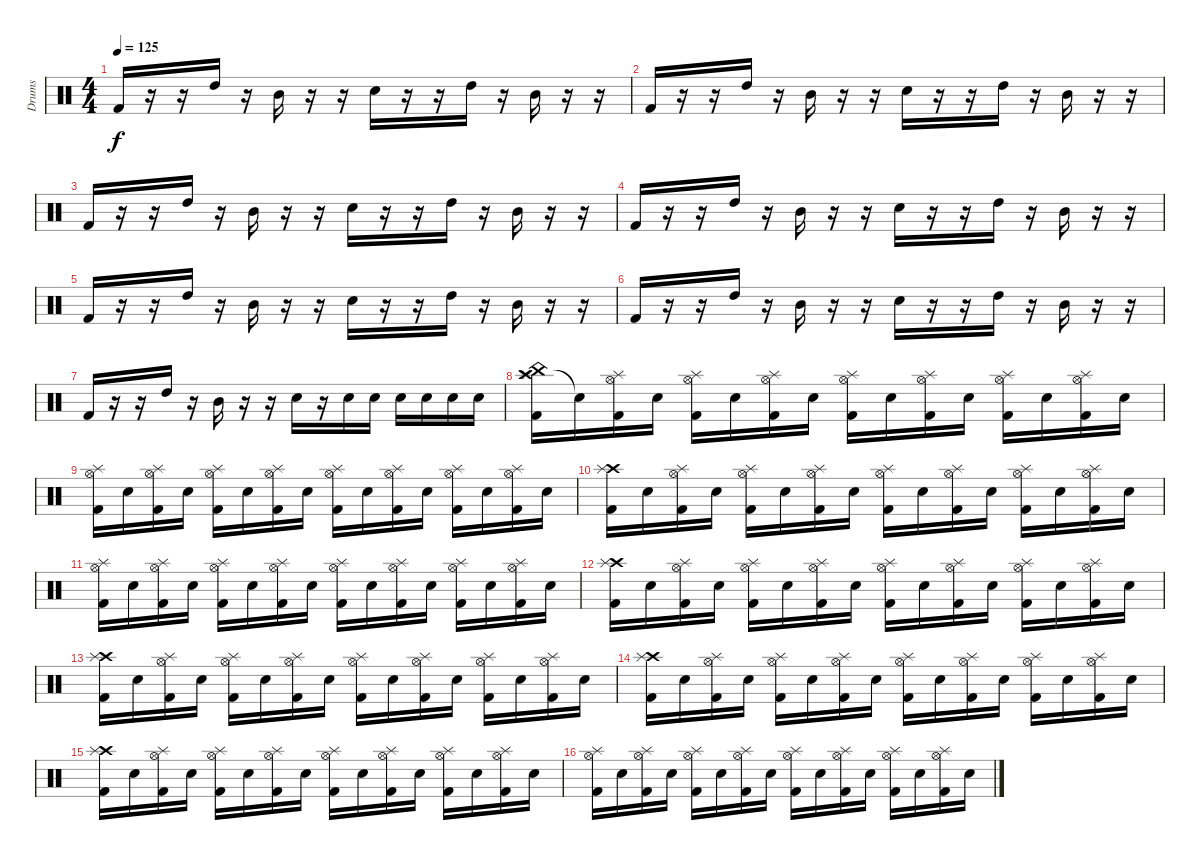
\track ("Drums" "Drums") {instrument percussion}
\staff {score}
\articulation defaults
\ts (4 4)
\tempo 125
\clef neutral
\ks c "Kick (hit) 2".16{dy f}
r.16 r.16 "High Tom (hit)".16 r.16 "Mid Tom (hit)".16 r.16 r.16 "Electric Snare (hit)".16 r.16 r.16 "High Tom (hit)".16 r.16 "Mid Tom (hit)".16 r.16 r.16 |
"Kick (hit) 2".16 r.16 r.16 "High Tom (hit)".16 r.16 "Mid Tom (hit)".16 r.16 r.16 "Electric Snare (hit)".16 r.16 r.16 "High Tom (hit)".16 r.16 "Mid Tom (hit)".16 r.16 r.16 |
"Kick (hit) 2".16 r.16 r.16 "High Tom (hit)".16 r.16 "Mid Tom (hit)".16 r.16 r.16 "Electric Snare (hit)".16 r.16 r.16 "High Tom (hit)".16 r.16 "Mid Tom (hit)".16 r.16 r.16 |
"Kick (hit) 2".16 r.16 r.16 "High Tom (hit)".16 r.16 "Mid Tom (hit)".16 r.16 r.16 "Electric Snare (hit)".16 r.16 r.16 "High Tom (hit)".16 r.16 "Mid Tom (hit)".16 r.16 r.16 |
"Kick (hit) 2".16 r.16 r.16 "High Tom (hit)".16 r.16 "Mid Tom (hit)".16 r.16 r.16 "Electric Snare (hit)".16 r.16 r.16 "High Tom (hit)".16 r.16 "Mid Tom (hit)".16 r.16 r.16 |
"Kick (hit) 2".16 r.16 r.16 "High Tom (hit)".16 r.16 "Mid Tom (hit)".16 r.16 r.16 "Electric Snare (hit)".16 r.16 r.16 "High Tom (hit)".16 r.16 "Mid Tom (hit)".16 r.16 r.16 |
"Kick (hit) 2".16 r.16 r.16 "High Tom (hit)".16 r.16 "Mid Tom (hit)".16 r.16 r.16 "Electric Snare (hit)".16 r.16 "Electric Snare (hit)".16 "Electric Snare (hit)".16 "Electric Snare (hit)".16 "Electric Snare (hit)".16 "Electric Snare (hit)".16 "Electric Snare (hit)".16 |
("Crash high (hit)" "China (hit)" "Splash (hit)" "Kick (hit) 2").16 "Snare (hit)"{t}.16 ("Hi-Hat (open)" "Splash (hit)" "Kick (hit) 2").16 "Electric Snare (hit)".16 ("Hi-Hat (open)" "Splash (hit)" "Kick (hit) 2").16 "Electric Snare (hit)".16 ("Hi-Hat (open)" "Splash (hit)" "Kick (hit) 2").16 "Electric Snare (hit)".16 ("Hi-Hat (open)" "Splash (hit)" "Kick (hit) 2").16 "Electric Snare (hit)".16 ("Hi-Hat (open)" "Splash (hit)" "Kick (hit) 2").16 "Electric Snare (hit)".16 ("Hi-Hat (open)" "Splash (hit)" "Kick (hit) 2").16 "Electric Snare (hit)".16 ("Hi-Hat (open)" "Splash (hit)" "Kick (hit) 2").16 "Electric Snare (hit)".16 |
("Hi-Hat (open)" "Splash (hit)" "Kick (hit) 2").16 "Electric Snare (hit)".16 ("Hi-Hat (open)" "Splash (hit)" "Kick (hit) 2").16 "Electric Snare (hit)".16 ("Hi-Hat (open)" "Splash (hit)" "Kick (hit) 2").16 "Electric Snare (hit)".16 ("Hi-Hat (open)" "Splash (hit)" "Kick (hit) 2").16 "Electric Snare (hit)".16 ("Hi-Hat (open)" "Splash (hit)" "Kick (hit) 2").16 "Electric Snare (hit)".16 ("Hi-Hat (open)" "Splash (hit)" "Kick (hit) 2").16 "Electric Snare (hit)".16 ("Hi-Hat (open)" "Splash (hit)" "Kick (hit) 2").16 "Electric Snare (hit)".16 ("Hi-Hat (open)" "Splash (hit)" "Kick (hit) 2").16 "Electric Snare (hit)".16 |
("Crash high (hit)" "Splash (hit)" "Kick (hit) 2").16 "Electric Snare (hit)".16 ("Hi-Hat (open)" "Splash (hit)" "Kick (hit) 2").16 "Electric Snare (hit)".16 ("Hi-Hat (open)" "Splash (hit)" "Kick (hit) 2").16 "Electric Snare (hit)".16 ("Hi-Hat (open)" "Splash (hit)" "Kick (hit) 2").16 "Electric Snare (hit)".16 ("Hi-Hat (open)" "Splash (hit)" "Kick (hit) 2").16 "Electric Snare (hit)".16 ("Hi-Hat (open)" "Splash (hit)" "Kick (hit) 2").16 "Electric Snare (hit)".16 ("Hi-Hat (open)" "Splash (hit)" "Kick (hit) 2").16 "Electric Snare (hit)".16 ("Hi-Hat (open)" "Splash (hit)" "Kick (hit) 2").16 "Electric Snare (hit)".16 |
("Hi-Hat (open)" "Splash (hit)" "Kick (hit) 2").16 "Electric Snare (hit)".16 ("Hi-Hat (open)" "Splash (hit)" "Kick (hit) 2").16 "Electric Snare (hit)".16 ("Hi-Hat (open)" "Splash (hit)" "Kick (hit) 2").16 "Electric Snare (hit)".16 ("Hi-Hat (open)" "Splash (hit)" "Kick (hit) 2").16 "Electric Snare (hit)".16 ("Hi-Hat (open)" "Splash (hit)" "Kick (hit) 2").16 "Electric Snare (hit)".16 ("Hi-Hat (open)" "Splash (hit)" "Kick (hit) 2").16 "Electric Snare (hit)".16 ("Hi-Hat (open)" "Splash (hit)" "Kick (hit) 2").16 "Electric Snare (hit)".16 ("Hi-Hat (open)" "Splash (hit)" "Kick (hit) 2").16 "Electric Snare (hit)".16 |
("Crash high (hit)" "Splash (hit)" "Kick (hit) 2").16 "Electric Snare (hit)".16 ("Hi-Hat (open)" "Splash (hit)" "Kick (hit) 2").16 "Electric Snare (hit)".16 ("Hi-Hat (open)" "Splash (hit)" "Kick (hit) 2").16 "Electric Snare (hit)".16 ("Hi-Hat (open)" "Splash (hit)" "Kick (hit) 2").16 "Electric Snare (hit)".16 ("Hi-Hat (open)" "Splash (hit)" "Kick (hit) 2").16 "Electric Snare (hit)".16 ("Hi-Hat (open)" "Splash (hit)" "Kick (hit) 2").16 "Electric Snare (hit)".16 ("Hi-Hat (open)" "Splash (hit)" "Kick (hit) 2").16 "Electric Snare (hit)".16 ("Hi-Hat (open)" "Splash (hit)" "Kick (hit) 2").16 "Electric Snare (hit)".16 |
("Crash high (hit)" "Splash (hit)" "Kick (hit) 2").16 "Electric Snare (hit)".16 ("Hi-Hat (open)" "Splash (hit)" "Kick (hit) 2").16 "Electric Snare (hit)".16 ("Hi-Hat (open)" "Splash (hit)" "Kick (hit) 2").16 "Electric Snare (hit)".16 ("Hi-Hat (open)" "Splash (hit)" "Kick (hit) 2").16 "Electric Snare (hit)".16 ("Hi-Hat (open)" "Splash (hit)" "Kick (hit) 2").16 "Electric Snare (hit)".16 ("Hi-Hat (open)" "Splash (hit)" "Kick (hit) 2").16 "Electric Snare (hit)".16 ("Hi-Hat (open)" "Splash (hit)" "Kick (hit) 2").16 "Electric Snare (hit)".16 ("Hi-Hat (open)" "Splash (hit)" "Kick (hit) 2").16 "Electric Snare (hit)".16 |
("Crash high (hit)" "Splash (hit)" "Kick (hit) 2").16 "Electric Snare (hit)".16 ("Hi-Hat (open)" "Splash (hit)" "Kick (hit) 2").16 "Electric Snare (hit)".16 ("Hi-Hat (open)" "Splash (hit)" "Kick (hit) 2").16 "Electric Snare (hit)".16 ("Hi-Hat (open)" "Splash (hit)" "Kick (hit) 2").16 "Electric Snare (hit)".16 ("Hi-Hat (open)" "Splash (hit)" "Kick (hit) 2").16 "Electric Snare (hit)".16 ("Hi-Hat (open)" "Splash (hit)" "Kick (hit) 2").16 "Electric Snare (hit)".16 ("Hi-Hat (open)" "Splash (hit)" "Kick (hit) 2").16 "Electric Snare (hit)".16 ("Hi-Hat (open)" "Splash (hit)" "Kick (hit) 2").16 "Electric Snare (hit)".16 |
("Crash high (hit)" "Splash (hit)" "Kick (hit) 2").16 "Electric Snare (hit)".16 ("Hi-Hat (open)" "Splash (hit)" "Kick (hit) 2").16 "Electric Snare (hit)".16 ("Hi-Hat (open)" "Splash (hit)" "Kick (hit) 2").16 "Electric Snare (hit)".16 ("Hi-Hat (open)" "Splash (hit)" "Kick (hit) 2").16 "Electric Snare (hit)".16 ("Hi-Hat (open)" "Splash (hit)" "Kick (hit) 2").16 "Electric Snare (hit)".16 ("Hi-Hat (open)" "Splash (hit)" "Kick (hit) 2").16 "Electric Snare (hit)".16 ("Hi-Hat (open)" "Splash (hit)" "Kick (hit) 2").16 "Electric Snare (hit)".16 ("Hi-Hat (open)" "Splash (hit)" "Kick (hit) 2").16 "Electric Snare (hit)".16 |
("Hi-Hat (open)" "Splash (hit)" "Kick (hit) 2").16 "Electric Snare (hit)".16 ("Hi-Hat (open)" "Splash (hit)" "Kick (hit) 2").16 "Electric Snare (hit)".16 ("Hi-Hat (open)" "Splash (hit)" "Kick (hit) 2").16 "Electric Snare (hit)".16 ("Hi-Hat (open)" "Splash (hit)" "Kick (hit) 2").16 "Electric Snare (hit)".16 ("Hi-Hat (open)" "Splash (hit)" "Kick (hit) 2").16 "Electric Snare (hit)".16 ("Hi-Hat (open)" "Splash (hit)" "Kick (hit) 2").16 "Electric Snare (hit)".16 ("Hi-Hat (open)" "Splash (hit)" "Kick (hit) 2").16 "Electric Snare (hit)".16 ("Hi-Hat (open)" "Splash (hit)" "Kick (hit) 2").16 "Electric Snare (hit)".16
